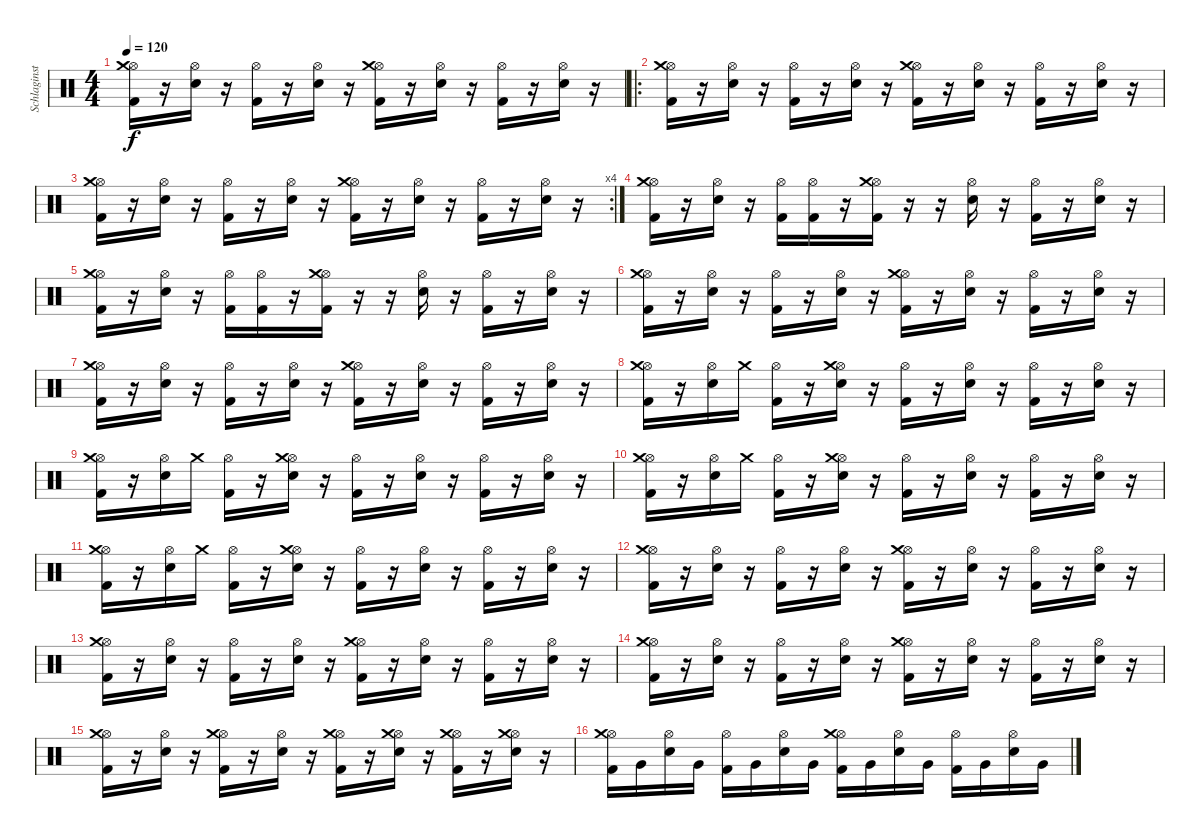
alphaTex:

\track ("Schlaginstrumente - Auswahl" "Schlaginst") {instrument percussion}
\staff {score}
\articulation defaults
\ts (4 4)
\tempo 120
\clef neutral
\ks c
("Kick (hit) 2" "Hi-Hat (open)" "Crash medium (hit)").16{dy f} r.16 ("Electric Snare (hit)" "Hi-Hat (open)").16 r.16 ("Kick (hit) 2" "Hi-Hat (open)").16 r.16 ("Electric Snare (hit)" "Hi-Hat (open)").16 r.16 ("Kick (hit) 2" "Hi-Hat (open)" "Crash medium (hit)").16 r.16 ("Electric Snare (hit)" "Hi-Hat (open)").16 r.16 ("Kick (hit) 2" "Hi-Hat (open)").16 r.16 ("Electric Snare (hit)" "Hi-Hat (open)").16 r.16 |
\ro
("Kick (hit) 2" "Hi-Hat (open)" "Crash medium (hit)").16 r.16 ("Electric Snare (hit)" "Hi-Hat (open)").16 r.16 ("Kick (hit) 2" "Hi-Hat (open)").16 r.16 ("Electric Snare (hit)" "Hi-Hat (open)").16 r.16 ("Kick (hit) 2" "Hi-Hat (open)" "Crash medium (hit)").16 r.16 ("Electric Snare (hit)" "Hi-Hat (open)").16 r.16 ("Kick (hit) 2" "Hi-Hat (open)").16 r.16 ("Electric Snare (hit)" "Hi-Hat (open)").16 r.16 |
\rc 4
("Kick (hit) 2" "Hi-Hat (open)" "Crash medium (hit)").16 r.16 ("Electric Snare (hit)" "Hi-Hat (open)").16 r.16 ("Kick (hit) 2" "Hi-Hat (open)").16 r.16 ("Electric Snare (hit)" "Hi-Hat (open)").16 r.16 ("Kick (hit) 2" "Hi-Hat (open)" "Crash medium (hit)").16 r.16 ("Electric Snare (hit)" "Hi-Hat (open)").16 r.16 ("Kick (hit) 2" "Hi-Hat (open)").16 r.16 ("Electric Snare (hit)" "Hi-Hat (open)").16 r.16 |
("Kick (hit) 2" "Hi-Hat (open)" "Crash medium (hit)").16 r.16 ("Electric Snare (hit)" "Hi-Hat (open)").16 r.16 ("Kick (hit) 2" "Hi-Hat (open)").16 ("Kick (hit) 2" "Hi-Hat (open)").16 r.16 ("Kick (hit) 2" "Hi-Hat (open)" "Crash medium (hit)").16 r.16 r.16 ("Electric Snare (hit)" "Hi-Hat (open)").16 r.16 ("Kick (hit) 2" "Hi-Hat (open)").16 r.16 ("Electric Snare (hit)" "Hi-Hat (open)").16 r.16 |
("Kick (hit) 2" "Hi-Hat (open)" "Crash medium (hit)").16 r.16 ("Electric Snare (hit)" "Hi-Hat (open)").16 r.16 ("Kick (hit) 2" "Hi-Hat (open)").16 ("Kick (hit) 2" "Hi-Hat (open)").16 r.16 ("Kick (hit) 2" "Hi-Hat (open)" "Crash medium (hit)").16 r.16 r.16 ("Electric Snare (hit)" "Hi-Hat (open)").16 r.16 ("Kick (hit) 2" "Hi-Hat (open)").16 r.16 ("Electric Snare (hit)" "Hi-Hat (open)").16 r.16 |
("Kick (hit) 2" "Hi-Hat (open)" "Crash medium (hit)").16 r.16 ("Electric Snare (hit)" "Hi-Hat (open)").16 r.16 ("Kick (hit) 2" "Hi-Hat (open)").16 r.16 ("Electric Snare (hit)" "Hi-Hat (open)").16 r.16 ("Kick (hit) 2" "Hi-Hat (open)" "Crash medium (hit)").16 r.16 ("Electric Snare (hit)" "Hi-Hat (open)").16 r.16 ("Kick (hit) 2" "Hi-Hat (open)").16 r.16 ("Electric Snare (hit)" "Hi-Hat (open)").16 r.16 |
("Kick (hit) 2" "Hi-Hat (open)" "Crash medium (hit)").16 r.16 ("Electric Snare (hit)" "Hi-Hat (open)").16 r.16 ("Kick (hit) 2" "Hi-Hat (open)").16 r.16 ("Electric Snare (hit)" "Hi-Hat (open)").16 r.16 ("Kick (hit) 2" "Hi-Hat (open)" "Crash medium (hit)").16 r.16 ("Electric Snare (hit)" "Hi-Hat (open)").16 r.16 ("Kick (hit) 2" "Hi-Hat (open)").16 r.16 ("Electric Snare (hit)" "Hi-Hat (open)").16 r.16 |
("Kick (hit) 2" "Hi-Hat (open)" "Crash medium (hit)").16 r.16 ("Electric Snare (hit)" "Hi-Hat (open)").16 "Crash medium (hit)".16 ("Kick (hit) 2" "Hi-Hat (open)").16 r.16 ("Electric Snare (hit)" "Hi-Hat (open)" "Crash medium (hit)").16 r.16 ("Kick (hit) 2" "Hi-Hat (open)").16 r.16 ("Electric Snare (hit)" "Hi-Hat (open)").16 r.16 ("Kick (hit) 2" "Hi-Hat (open)").16 r.16 ("Electric Snare (hit)" "Hi-Hat (open)").16 r.16 |
("Kick (hit) 2" "Hi-Hat (open)" "Crash medium (hit)").16 r.16 ("Electric Snare (hit)" "Hi-Hat (open)").16 "Crash medium (hit)".16 ("Kick (hit) 2" "Hi-Hat (open)").16 r.16 ("Electric Snare (hit)" "Hi-Hat (open)" "Crash medium (hit)").16 r.16 ("Kick (hit) 2" "Hi-Hat (open)").16 r.16 ("Electric Snare (hit)" "Hi-Hat (open)").16 r.16 ("Kick (hit) 2" "Hi-Hat (open)").16 r.16 ("Electric Snare (hit)" "Hi-Hat (open)").16 r.16 |
("Kick (hit) 2" "Hi-Hat (open)" "Crash medium (hit)").16 r.16 ("Electric Snare (hit)" "Hi-Hat (open)").16 "Crash medium (hit)".16 ("Kick (hit) 2" "Hi-Hat (open)").16 r.16 ("Electric Snare (hit)" "Hi-Hat (open)" "Crash medium (hit)").16 r.16 ("Kick (hit) 2" "Hi-Hat (open)").16 r.16 ("Electric Snare (hit)" "Hi-Hat (open)").16 r.16 ("Kick (hit) 2" "Hi-Hat (open)").16 r.16 ("Electric Snare (hit)" "Hi-Hat (open)").16 r.16 |
("Kick (hit) 2" "Hi-Hat (open)" "Crash medium (hit)").16 r.16 ("Electric Snare (hit)" "Hi-Hat (open)").16 "Crash medium (hit)".16 ("Kick (hit) 2" "Hi-Hat (open)").16 r.16 ("Electric Snare (hit)" "Hi-Hat (open)" "Crash medium (hit)").16 r.16 ("Kick (hit) 2" "Hi-Hat (open)").16 r.16 ("Electric Snare (hit)" "Hi-Hat (open)").16 r.16 ("Kick (hit) 2" "Hi-Hat (open)").16 r.16 ("Electric Snare (hit)" "Hi-Hat (open)").16 r.16 |
("Kick (hit) 2" "Hi-Hat (open)" "Crash medium (hit)").16 r.16 ("Electric Snare (hit)" "Hi-Hat (open)").16 r.16 ("Kick (hit) 2" "Hi-Hat (open)").16 r.16 ("Electric Snare (hit)" "Hi-Hat (open)").16 r.16 ("Kick (hit) 2" "Hi-Hat (open)" "Crash medium (hit)").16 r.16 ("Electric Snare (hit)" "Hi-Hat (open)").16 r.16 ("Kick (hit) 2" "Hi-Hat (open)").16 r.16 ("Electric Snare (hit)" "Hi-Hat (open)").16 r.16 |
("Kick (hit) 2" "Hi-Hat (open)" "Crash medium (hit)").16 r.16 ("Electric Snare (hit)" "Hi-Hat (open)").16 r.16 ("Kick (hit) 2" "Hi-Hat (open)").16 r.16 ("Electric Snare (hit)" "Hi-Hat (open)").16 r.16 ("Kick (hit) 2" "Hi-Hat (open)" "Crash medium (hit)").16 r.16 ("Electric Snare (hit)" "Hi-Hat (open)").16 r.16 ("Kick (hit) 2" "Hi-Hat (open)").16 r.16 ("Electric Snare (hit)" "Hi-Hat (open)").16 r.16 |
("Kick (hit) 2" "Hi-Hat (open)" "Crash medium (hit)").16 r.16 ("Electric Snare (hit)" "Hi-Hat (open)").16 r.16 ("Kick (hit) 2" "Hi-Hat (open)").16 r.16 ("Electric Snare (hit)" "Hi-Hat (open)").16 r.16 ("Kick (hit) 2" "Hi-Hat (open)" "Crash medium (hit)").16 r.16 ("Electric Snare (hit)" "Hi-Hat (open)").16 r.16 ("Kick (hit) 2" "Hi-Hat (open)").16 r.16 ("Electric Snare (hit)" "Hi-Hat (open)").16 r.16 |
("Kick (hit) 2" "Hi-Hat (open)" "Crash medium (hit)").16 r.16 ("Electric Snare (hit)" "Hi-Hat (open)").16 r.16 ("Kick (hit) 2" "Hi-Hat (open)" "Crash medium (hit)").16 r.16 ("Electric Snare (hit)" "Hi-Hat (open)").16 r.16 ("Kick (hit) 2" "Hi-Hat (open)" "Crash medium (hit)").16 r.16 ("Electric Snare (hit)" "Hi-Hat (open)" "Crash medium (hit)").16 r.16 ("Kick (hit) 2" "Hi-Hat (open)" "Crash medium (hit)").16 r.16 ("Electric Snare (hit)" "Hi-Hat (open)" "Crash medium (hit)").16 r.16 |
("Kick (hit) 2" "Hi-Hat (open)" "Crash medium (hit)").16 "Very Low Tom (hit)".16 ("Electric Snare (hit)" "Hi-Hat (open)").16 "Very Low Tom (hit)".16 ("Kick (hit) 2" "Hi-Hat (open)").16 "Very Low Tom (hit)".16 ("Electric Snare (hit)" "Hi-Hat (open)").16 "Very Low Tom (hit)".16 ("Kick (hit) 2" "Hi-Hat (open)" "Crash medium (hit)").16 "Very Low Tom (hit)".16 ("Electric Snare (hit)" "Hi-Hat (open)").16 "Very Low Tom (hit)".16 ("Kick (hit) 2" "Hi-Hat (open)").16 "Very Low Tom (hit)".16 ("Electric Snare (hit)" "Hi-Hat (open)").16 "Very Low Tom (hit)".16
